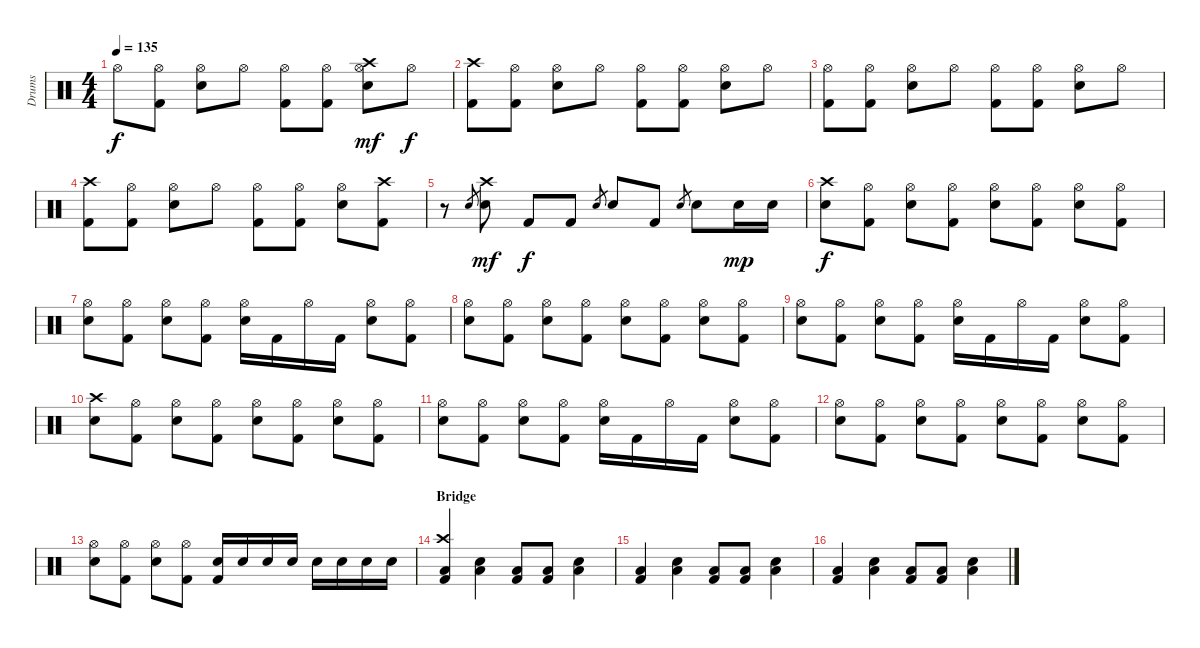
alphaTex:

\track ("Drums" "Drums") {instrument percussion}
\staff {score}
\articulation defaults
\ts (4 4)
\tempo 135
\clef neutral
\ks c "Hi-Hat (open)".8{dy f}
("Hi-Hat (open)" "Kick (hit) 2").8 ("Hi-Hat (open)" "Snare (hit) 2").8 "Hi-Hat (open)".8 ("Hi-Hat (open)" "Kick (hit) 2").8 ("Hi-Hat (open)" "Kick (hit) 2").8 ("Crash high (hit)" "Hi-Hat (open)" "Snare (hit) 2").8{dy mf} "Hi-Hat (open)".8{dy f} |
("Crash high (hit)" "Kick (hit) 2").8 ("Hi-Hat (open)" "Kick (hit) 2").8 ("Hi-Hat (open)" "Snare (hit) 2").8 "Hi-Hat (open)".8 ("Hi-Hat (open)" "Kick (hit) 2").8 ("Hi-Hat (open)" "Kick (hit) 2").8 ("Hi-Hat (open)" "Snare (hit) 2").8 "Hi-Hat (open)".8 |
("Hi-Hat (open)" "Kick (hit) 2").8 ("Hi-Hat (open)" "Kick (hit) 2").8 ("Hi-Hat (open)" "Snare (hit) 2").8 "Hi-Hat (open)".8 ("Hi-Hat (open)" "Kick (hit) 2").8 ("Hi-Hat (open)" "Kick (hit) 2").8 ("Hi-Hat (open)" "Snare (hit) 2").8 "Hi-Hat (open)".8 |
("Crash high (hit)" "Kick (hit) 2").8 ("Hi-Hat (open)" "Kick (hit) 2").8 ("Hi-Hat (open)" "Snare (hit) 2").8 "Hi-Hat (open)".8 ("Hi-Hat (open)" "Kick (hit) 2").8 ("Hi-Hat (open)" "Kick (hit) 2").8 ("Hi-Hat (open)" "Snare (hit) 2").8 ("Crash high (hit)" "Kick (hit) 2").8 |
r.8 "Snare (hit) 2".8{gr} ("Crash high (hit)" "Snare (hit) 2").8{dy mf} "Kick (hit) 2".8{dy f} "Kick (hit) 2".8 "Snare (hit) 2".8{gr} "Snare (hit) 2".8 "Kick (hit) 2".8 "Snare (hit) 2".8{gr} "Snare (hit) 2".8 "Snare (hit) 2".16{dy mp} "Snare (hit) 2".16 |
("Crash high (hit)" "Snare (hit) 2").8{dy f} ("Hi-Hat (open)" "Kick (hit) 2").8 ("Hi-Hat (open)" "Snare (hit) 2").8 ("Hi-Hat (open)" "Kick (hit) 2").8 ("Hi-Hat (open)" "Snare (hit) 2").8 ("Hi-Hat (open)" "Kick (hit) 2").8 ("Hi-Hat (open)" "Snare (hit) 2").8 ("Hi-Hat (open)" "Kick (hit) 2").8 |
("Hi-Hat (open)" "Snare (hit) 2").8 ("Hi-Hat (open)" "Kick (hit) 2").8 ("Hi-Hat (open)" "Snare (hit) 2").8 ("Hi-Hat (open)" "Kick (hit) 2").8 ("Hi-Hat (open)" "Snare (hit) 2").16 "Kick (hit) 2".16 "Hi-Hat (open)".16 "Kick (hit) 2".16 ("Hi-Hat (open)" "Snare (hit) 2").8 ("Hi-Hat (open)" "Kick (hit) 2").8 |
("Hi-Hat (open)" "Snare (hit) 2").8 ("Hi-Hat (open)" "Kick (hit) 2").8 ("Hi-Hat (open)" "Snare (hit) 2").8 ("Hi-Hat (open)" "Kick (hit) 2").8 ("Hi-Hat (open)" "Snare (hit) 2").8 ("Hi-Hat (open)" "Kick (hit) 2").8 ("Hi-Hat (open)" "Snare (hit) 2").8 ("Hi-Hat (open)" "Kick (hit) 2").8 |
("Hi-Hat (open)" "Snare (hit) 2").8 ("Hi-Hat (open)" "Kick (hit) 2").8 ("Hi-Hat (open)" "Snare (hit) 2").8 ("Hi-Hat (open)" "Kick (hit) 2").8 ("Hi-Hat (open)" "Snare (hit) 2").16 "Kick (hit) 2".16 "Hi-Hat (open)".16 "Kick (hit) 2".16 ("Hi-Hat (open)" "Snare (hit) 2").8 ("Hi-Hat (open)" "Kick (hit) 2").8 |
("Crash high (hit)" "Snare (hit) 2").8 ("Hi-Hat (open)" "Kick (hit) 2").8 ("Hi-Hat (open)" "Snare (hit) 2").8 ("Hi-Hat (open)" "Kick (hit) 2").8 ("Hi-Hat (open)" "Snare (hit) 2").8 ("Hi-Hat (open)" "Kick (hit) 2").8 ("Hi-Hat (open)" "Snare (hit) 2").8 ("Hi-Hat (open)" "Kick (hit) 2").8 |
("Hi-Hat (open)" "Snare (hit) 2").8 ("Hi-Hat (open)" "Kick (hit) 2").8 ("Hi-Hat (open)" "Snare (hit) 2").8 ("Hi-Hat (open)" "Kick (hit) 2").8 ("Hi-Hat (open)" "Snare (hit) 2").16 "Kick (hit) 2".16 "Hi-Hat (open)".16 "Kick (hit) 2".16 ("Hi-Hat (open)" "Snare (hit) 2").8 ("Hi-Hat (open)" "Kick (hit) 2").8 |
("Hi-Hat (open)" "Snare (hit) 2").8 ("Hi-Hat (open)" "Kick (hit) 2").8 ("Hi-Hat (open)" "Snare (hit) 2").8 ("Hi-Hat (open)" "Kick (hit) 2").8 ("Hi-Hat (open)" "Snare (hit) 2").8 ("Hi-Hat (open)" "Kick (hit) 2").8 ("Hi-Hat (open)" "Snare (hit) 2").8 ("Hi-Hat (open)" "Kick (hit) 2").8 |
("Hi-Hat (open)" "Snare (hit) 2").8 ("Hi-Hat (open)" "Kick (hit) 2").8 ("Hi-Hat (open)" "Snare (hit) 2").8 ("Hi-Hat (open)" "Kick (hit) 2").8 ("Snare (hit) 2" "Kick (hit) 2").16 "Snare (hit) 2".16 "Snare (hit) 2".16 "Snare (hit) 2".16 "Snare (hit) 2".16 "Snare (hit) 2".16 "Snare (hit) 2".16 "Snare (hit) 2".16 |
\section ("" "Bridge")
("Crash high (hit)" "Low Tom (hit)" "Kick (hit) 2").4 ("Snare (hit) 2" "Low Tom (hit)").4 ("Low Tom (hit)" "Kick (hit) 2").8 ("Low Tom (hit)" "Kick (hit) 2").8 ("Snare (hit) 2" "Low Tom (hit)").4 |
("Low Tom (hit)" "Kick (hit) 2").4 ("Snare (hit) 2" "Low Tom (hit)").4 ("Low Tom (hit)" "Kick (hit) 2").8 ("Low Tom (hit)" "Kick (hit) 2").8 ("Snare (hit) 2" "Low Tom (hit)").4 |
("Low Tom (hit)" "Kick (hit) 2").4 ("Snare (hit) 2" "Low Tom (hit)").4 ("Low Tom (hit)" "Kick (hit) 2").8 ("Low Tom (hit)" "Kick (hit) 2").8 ("Snare (hit) 2" "Low Tom (hit)").4
